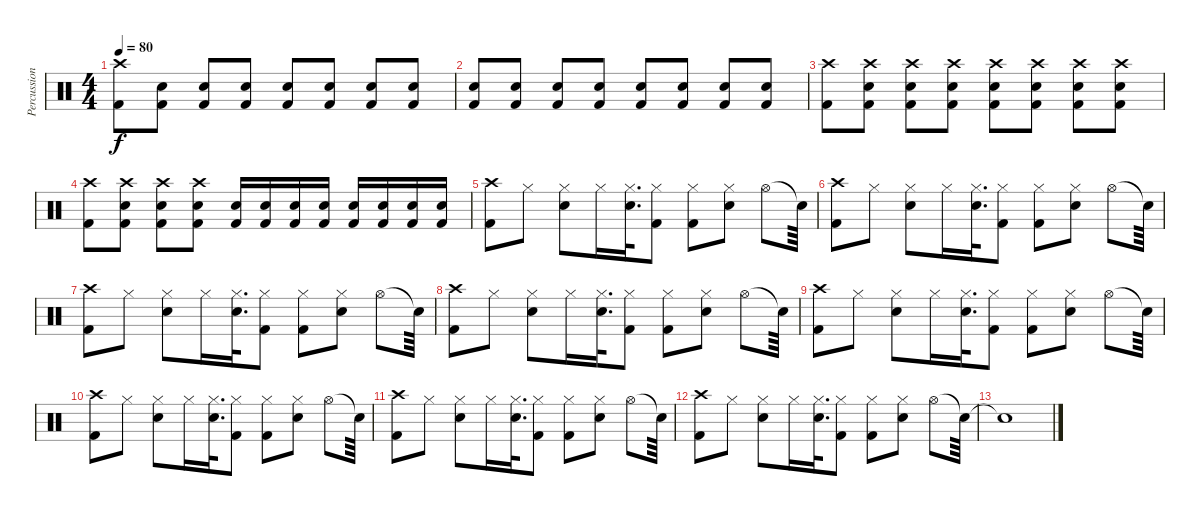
\track ("Percussion" "Percussion") {instrument percussion}
\staff {score}
\articulation defaults
\ts (4 4)
\tempo 80
\clef neutral
\ks c
("Crash high (hit)" "Kick (hit) 2").8{dy f} ("Snare (hit) 2" "Kick (hit) 2").8 ("Snare (hit) 2" "Kick (hit) 2").8 ("Snare (hit) 2" "Kick (hit) 2").8 ("Snare (hit) 2" "Kick (hit) 2").8 ("Snare (hit) 2" "Kick (hit) 2").8 ("Snare (hit) 2" "Kick (hit) 2").8 ("Snare (hit) 2" "Kick (hit) 2").8 |
("Snare (hit) 2" "Kick (hit) 2").8 ("Snare (hit) 2" "Kick (hit) 2").8 ("Snare (hit) 2" "Kick (hit) 2").8 ("Snare (hit) 2" "Kick (hit) 2").8 ("Snare (hit) 2" "Kick (hit) 2").8 ("Snare (hit) 2" "Kick (hit) 2").8 ("Snare (hit) 2" "Kick (hit) 2").8 ("Snare (hit) 2" "Kick (hit) 2").8 |
("Crash high (hit)" "Kick (hit) 2").8 ("Crash high (hit)" "Snare (hit) 2" "Kick (hit) 2").8 ("Crash high (hit)" "Snare (hit) 2" "Kick (hit) 2").8 ("Crash high (hit)" "Snare (hit) 2" "Kick (hit) 2").8 ("Crash high (hit)" "Snare (hit) 2" "Kick (hit) 2").8 ("Crash high (hit)" "Snare (hit) 2" "Kick (hit) 2").8 ("Crash high (hit)" "Snare (hit) 2" "Kick (hit) 2").8 ("Crash high (hit)" "Snare (hit) 2" "Kick (hit) 2").8 |
("Crash high (hit)" "Kick (hit) 2").8 ("Crash high (hit)" "Snare (hit) 2" "Kick (hit) 2").8 ("Crash high (hit)" "Snare (hit) 2" "Kick (hit) 2").8 ("Crash high (hit)" "Snare (hit) 2" "Kick (hit) 2").8 ("Snare (hit) 2" "Kick (hit) 2").16 ("Snare (hit) 2" "Kick (hit) 2").16 ("Snare (hit) 2" "Kick (hit) 2").16 ("Snare (hit) 2" "Kick (hit) 2").16 ("Snare (hit) 2" "Kick (hit) 2").16 ("Snare (hit) 2" "Kick (hit) 2").16 ("Snare (hit) 2" "Kick (hit) 2").16 ("Snare (hit) 2" "Kick (hit) 2").16 |
("Crash high (hit)" "Kick (hit) 2").8 "Hi-Hat (closed)".8 ("Hi-Hat (closed)" "Snare (hit) 2").8 "Hi-Hat (closed)".16 ("Hi-Hat (closed)" "Snare (hit) 2").32{d} ("Hi-Hat (closed)" "Kick (hit) 2").8 ("Hi-Hat (closed)" "Kick (hit) 2").8 ("Hi-Hat (closed)" "Snare (hit) 2").8 "Hi-Hat (open)".8 "Snare (hit)"{t}.64 |
("Crash high (hit)" "Kick (hit) 2").8 "Hi-Hat (closed)".8 ("Hi-Hat (closed)" "Snare (hit) 2").8 "Hi-Hat (closed)".16 ("Hi-Hat (closed)" "Snare (hit) 2").32{d} ("Hi-Hat (closed)" "Kick (hit) 2").8 ("Hi-Hat (closed)" "Kick (hit) 2").8 ("Hi-Hat (closed)" "Snare (hit) 2").8 "Hi-Hat (open)".8 "Snare (hit)"{t}.64 |
("Crash high (hit)" "Kick (hit) 2").8 "Hi-Hat (closed)".8 ("Hi-Hat (closed)" "Snare (hit) 2").8 "Hi-Hat (closed)".16 ("Hi-Hat (closed)" "Snare (hit) 2").32{d} ("Hi-Hat (closed)" "Kick (hit) 2").8 ("Hi-Hat (closed)" "Kick (hit) 2").8 ("Hi-Hat (closed)" "Snare (hit) 2").8 "Hi-Hat (open)".8 "Snare (hit)"{t}.64 |
("Crash high (hit)" "Kick (hit) 2").8 "Hi-Hat (closed)".8 ("Hi-Hat (closed)" "Snare (hit) 2").8 "Hi-Hat (closed)".16 ("Hi-Hat (closed)" "Snare (hit) 2").32{d} ("Hi-Hat (closed)" "Kick (hit) 2").8 ("Hi-Hat (closed)" "Kick (hit) 2").8 ("Hi-Hat (closed)" "Snare (hit) 2").8 "Hi-Hat (open)".8 "Snare (hit)"{t}.64 |
("Crash high (hit)" "Kick (hit) 2").8 "Hi-Hat (closed)".8 ("Hi-Hat (closed)" "Snare (hit) 2").8 "Hi-Hat (closed)".16 ("Hi-Hat (closed)" "Snare (hit) 2").32{d} ("Hi-Hat (closed)" "Kick (hit) 2").8 ("Hi-Hat (closed)" "Kick (hit) 2").8 ("Hi-Hat (closed)" "Snare (hit) 2").8 "Hi-Hat (open)".8 "Snare (hit)"{t}.64 |
("Crash high (hit)" "Kick (hit) 2").8 "Hi-Hat (closed)".8 ("Hi-Hat (closed)" "Snare (hit) 2").8 "Hi-Hat (closed)".16 ("Hi-Hat (closed)" "Snare (hit) 2").32{d} ("Hi-Hat (closed)" "Kick (hit) 2").8 ("Hi-Hat (closed)" "Kick (hit) 2").8 ("Hi-Hat (closed)" "Snare (hit) 2").8 "Hi-Hat (open)".8 "Snare (hit)"{t}.64 |
("Crash high (hit)" "Kick (hit) 2").8 "Hi-Hat (closed)".8 ("Hi-Hat (closed)" "Snare (hit) 2").8 "Hi-Hat (closed)".16 ("Hi-Hat (closed)" "Snare (hit) 2").32{d} ("Hi-Hat (closed)" "Kick (hit) 2").8 ("Hi-Hat (closed)" "Kick (hit) 2").8 ("Hi-Hat (closed)" "Snare (hit) 2").8 "Hi-Hat (open)".8 "Snare (hit)"{t}.64 |
("Crash high (hit)" "Kick (hit) 2").8 "Hi-Hat (closed)".8 ("Hi-Hat (closed)" "Snare (hit) 2").8 "Hi-Hat (closed)".16 ("Hi-Hat (closed)" "Snare (hit) 2").32{d} ("Hi-Hat (closed)" "Kick (hit) 2").8 ("Hi-Hat (closed)" "Kick (hit) 2").8 ("Hi-Hat (closed)" "Snare (hit) 2").8 "Hi-Hat (open)".8 "Snare (hit)"{t}.64 |
"Snare (hit)"{t}.1
